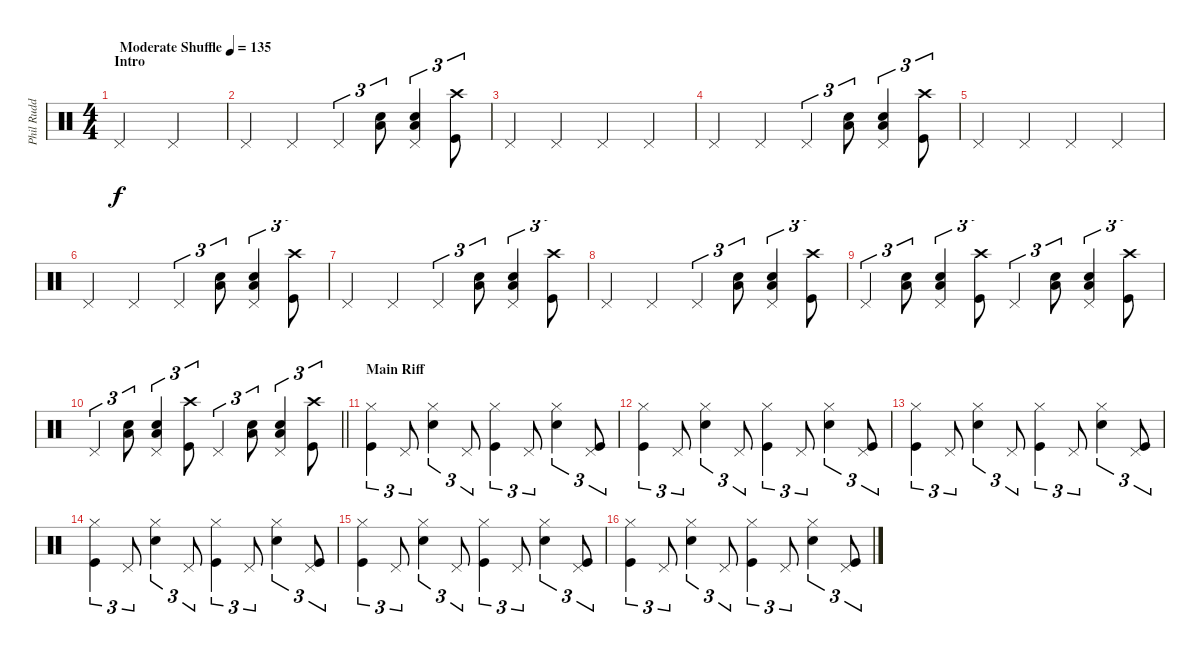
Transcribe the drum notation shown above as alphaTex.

\track ("Phil Rudd" "Phil Rudd") {instrument percussion}
\staff {score}
\articulation defaults
\ts (4 4)
\section ("" "Intro")
\tempo (135 "Moderate Shuffle")
\clef neutral
\ks c "Pedal Hi-Hat (hit)".2{dy f} "Pedal Hi-Hat (hit)".2
|
"Pedal Hi-Hat (hit)".4 "Pedal Hi-Hat (hit)".4 "Pedal Hi-Hat (hit)".4{tu (3 2)} ("Snare (hit) 2" "Low Floor Tom (hit)").8{tu (3 2)} ("Pedal Hi-Hat (hit)" "Snare (hit) 2" "Low Floor Tom (hit)").4{tu (3 2)} ("Crash high (hit)" "Kick (hit)").8{tu (3 2)} |
"Pedal Hi-Hat (hit)".4 "Pedal Hi-Hat (hit)".4 "Pedal Hi-Hat (hit)".4 "Pedal Hi-Hat (hit)".4 |
"Pedal Hi-Hat (hit)".4 "Pedal Hi-Hat (hit)".4 "Pedal Hi-Hat (hit)".4{tu (3 2)} ("Snare (hit) 2" "Low Floor Tom (hit)").8{tu (3 2)} ("Pedal Hi-Hat (hit)" "Snare (hit) 2" "Low Floor Tom (hit)").4{tu (3 2)} ("Crash high (hit)" "Kick (hit)").8{tu (3 2)} |
"Pedal Hi-Hat (hit)".4 "Pedal Hi-Hat (hit)".4 "Pedal Hi-Hat (hit)".4 "Pedal Hi-Hat (hit)".4 |
"Pedal Hi-Hat (hit)".4 "Pedal Hi-Hat (hit)".4 "Pedal Hi-Hat (hit)".4{tu (3 2)} ("Snare (hit) 2" "Low Floor Tom (hit)").8{tu (3 2)} ("Pedal Hi-Hat (hit)" "Snare (hit) 2" "Low Floor Tom (hit)").4{tu (3 2)} ("Crash high (hit)" "Kick (hit)").8{tu (3 2)} |
"Pedal Hi-Hat (hit)".4 "Pedal Hi-Hat (hit)".4 "Pedal Hi-Hat (hit)".4{tu (3 2)} ("Snare (hit) 2" "Low Floor Tom (hit)").8{tu (3 2)} ("Pedal Hi-Hat (hit)" "Snare (hit) 2" "Low Floor Tom (hit)").4{tu (3 2)} ("Crash high (hit)" "Kick (hit)").8{tu (3 2)} |
"Pedal Hi-Hat (hit)".4 "Pedal Hi-Hat (hit)".4 "Pedal Hi-Hat (hit)".4{tu (3 2)} ("Snare (hit) 2" "Low Floor Tom (hit)").8{tu (3 2)} ("Pedal Hi-Hat (hit)" "Snare (hit) 2" "Low Floor Tom (hit)").4{tu (3 2)} ("Crash high (hit)" "Kick (hit)").8{tu (3 2)} |
"Pedal Hi-Hat (hit)".4{tu (3 2)} ("Snare (hit) 2" "Low Floor Tom (hit)").8{tu (3 2)} ("Pedal Hi-Hat (hit)" "Snare (hit) 2" "Low Floor Tom (hit)").4{tu (3 2)} ("Crash high (hit)" "Kick (hit)").8{tu (3 2)} "Pedal Hi-Hat (hit)".4{tu (3 2)} ("Snare (hit) 2" "Low Floor Tom (hit)").8{tu (3 2)} ("Pedal Hi-Hat (hit)" "Snare (hit) 2" "Low Floor Tom (hit)").4{tu (3 2)} ("Crash high (hit)" "Kick (hit)").8{tu (3 2)} |
\barLineRight lightlight "Pedal Hi-Hat (hit)".4{tu (3 2)}
("Snare (hit) 2" "Low Floor Tom (hit)").8{tu (3 2)} ("Pedal Hi-Hat (hit)" "Snare (hit) 2" "Low Floor Tom (hit)").4{tu (3 2)} ("Crash high (hit)" "Kick (hit)").8{tu (3 2)} "Pedal Hi-Hat (hit)".4{tu (3 2)} ("Snare (hit) 2" "Low Floor Tom (hit)").8{tu (3 2)} ("Pedal Hi-Hat (hit)" "Snare (hit) 2" "Low Floor Tom (hit)").4{tu (3 2)} ("Crash high (hit)" "Kick (hit)").8{tu (3 2)} |
\section ("" "Main Riff")
("Hi-Hat (closed)" "Kick (hit)").4{tu (3 2)} "Pedal Hi-Hat (hit)".8{tu (3 2)} ("Hi-Hat (closed)" "Snare (hit) 2").4{tu (3 2)} "Pedal Hi-Hat (hit)".8{tu (3 2)} ("Hi-Hat (closed)" "Kick (hit)").4{tu (3 2)} "Pedal Hi-Hat (hit)".8{tu (3 2)} ("Hi-Hat (closed)" "Snare (hit) 2").4{tu (3 2)} ("Pedal Hi-Hat (hit)" "Kick (hit)").8{tu (3 2)} |
("Hi-Hat (closed)" "Kick (hit)").4{tu (3 2)} "Pedal Hi-Hat (hit)".8{tu (3 2)} ("Hi-Hat (closed)" "Snare (hit) 2").4{tu (3 2)} "Pedal Hi-Hat (hit)".8{tu (3 2)} ("Hi-Hat (closed)" "Kick (hit)").4{tu (3 2)} "Pedal Hi-Hat (hit)".8{tu (3 2)} ("Hi-Hat (closed)" "Snare (hit) 2").4{tu (3 2)} ("Pedal Hi-Hat (hit)" "Kick (hit)").8{tu (3 2)} |
("Hi-Hat (closed)" "Kick (hit)").4{tu (3 2)} "Pedal Hi-Hat (hit)".8{tu (3 2)} ("Hi-Hat (closed)" "Snare (hit) 2").4{tu (3 2)} "Pedal Hi-Hat (hit)".8{tu (3 2)} ("Hi-Hat (closed)" "Kick (hit)").4{tu (3 2)} "Pedal Hi-Hat (hit)".8{tu (3 2)} ("Hi-Hat (closed)" "Snare (hit) 2").4{tu (3 2)} ("Pedal Hi-Hat (hit)" "Kick (hit)").8{tu (3 2)} |
("Hi-Hat (closed)" "Kick (hit)").4{tu (3 2)} "Pedal Hi-Hat (hit)".8{tu (3 2)} ("Hi-Hat (closed)" "Snare (hit) 2").4{tu (3 2)} "Pedal Hi-Hat (hit)".8{tu (3 2)} ("Hi-Hat (closed)" "Kick (hit)").4{tu (3 2)} "Pedal Hi-Hat (hit)".8{tu (3 2)} ("Hi-Hat (closed)" "Snare (hit) 2").4{tu (3 2)} ("Pedal Hi-Hat (hit)" "Kick (hit)").8{tu (3 2)} |
("Hi-Hat (closed)" "Kick (hit)").4{tu (3 2)} "Pedal Hi-Hat (hit)".8{tu (3 2)} ("Hi-Hat (closed)" "Snare (hit) 2").4{tu (3 2)} "Pedal Hi-Hat (hit)".8{tu (3 2)} ("Hi-Hat (closed)" "Kick (hit)").4{tu (3 2)} "Pedal Hi-Hat (hit)".8{tu (3 2)} ("Hi-Hat (closed)" "Snare (hit) 2").4{tu (3 2)} ("Pedal Hi-Hat (hit)" "Kick (hit)").8{tu (3 2)} |
("Hi-Hat (closed)" "Kick (hit)").4{tu (3 2)} "Pedal Hi-Hat (hit)".8{tu (3 2)} ("Hi-Hat (closed)" "Snare (hit) 2").4{tu (3 2)} "Pedal Hi-Hat (hit)".8{tu (3 2)} ("Hi-Hat (closed)" "Kick (hit)").4{tu (3 2)} "Pedal Hi-Hat (hit)".8{tu (3 2)} ("Hi-Hat (closed)" "Snare (hit) 2").4{tu (3 2)} ("Pedal Hi-Hat (hit)" "Kick (hit)").8{tu (3 2)}
